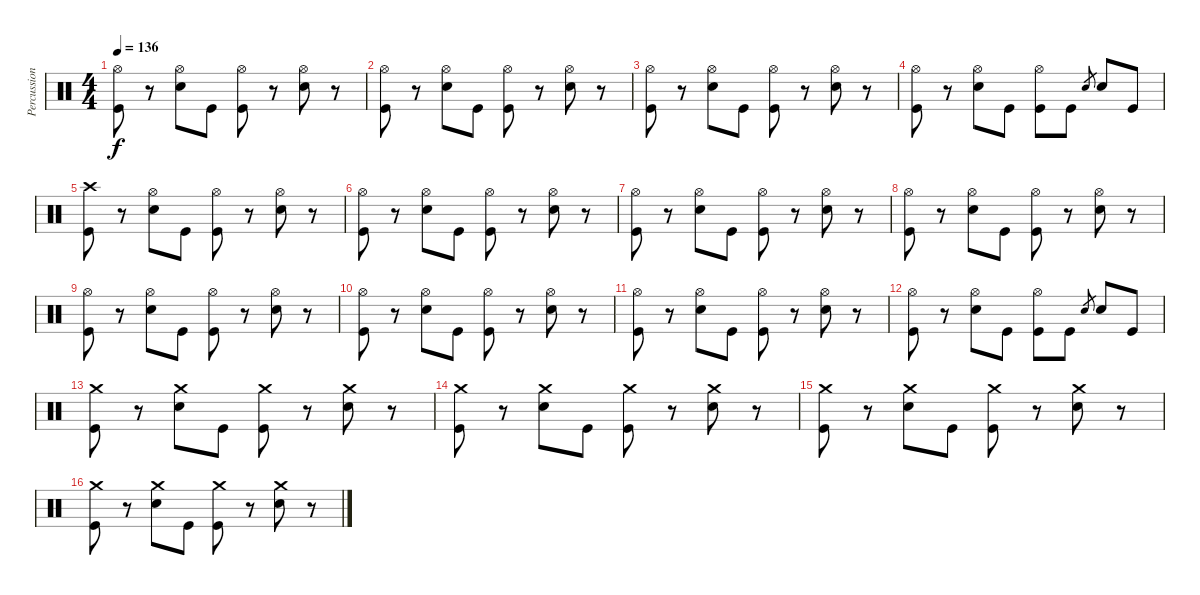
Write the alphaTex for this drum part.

\track ("Percussion" "Percussion") {instrument percussion}
\staff {score}
\articulation defaults
\ts (4 4)
\tempo 136
\clef neutral
\ks c
("Hi-Hat (open)" "Kick (hit)").8{dy f} r.8 ("Hi-Hat (open)" "Electric Snare (hit)").8 "Kick (hit)".8 ("Hi-Hat (open)" "Kick (hit)").8 r.8 ("Hi-Hat (open)" "Electric Snare (hit)").8 r.8 |
("Hi-Hat (open)" "Kick (hit)").8 r.8 ("Hi-Hat (open)" "Electric Snare (hit)").8 "Kick (hit)".8 ("Hi-Hat (open)" "Kick (hit)").8 r.8 ("Hi-Hat (open)" "Electric Snare (hit)").8 r.8 |
("Hi-Hat (open)" "Kick (hit)").8 r.8 ("Hi-Hat (open)" "Electric Snare (hit)").8 "Kick (hit)".8 ("Hi-Hat (open)" "Kick (hit)").8 r.8 ("Hi-Hat (open)" "Electric Snare (hit)").8 r.8 |
("Hi-Hat (open)" "Kick (hit)").8 r.8 ("Hi-Hat (open)" "Electric Snare (hit)").8 "Kick (hit)".8 ("Hi-Hat (open)" "Kick (hit)").8 "Kick (hit)".8 "Electric Snare (hit)".8{gr} "Electric Snare (hit)".8 "Kick (hit)".8 |
("Crash high (hit)" "Kick (hit)").8 r.8 ("Hi-Hat (open)" "Electric Snare (hit)").8 "Kick (hit)".8 ("Hi-Hat (open)" "Kick (hit)").8 r.8 ("Hi-Hat (open)" "Electric Snare (hit)").8 r.8 |
("Hi-Hat (open)" "Kick (hit)").8 r.8 ("Hi-Hat (open)" "Electric Snare (hit)").8 "Kick (hit)".8 ("Hi-Hat (open)" "Kick (hit)").8 r.8 ("Hi-Hat (open)" "Electric Snare (hit)").8 r.8 |
("Hi-Hat (open)" "Kick (hit)").8 r.8 ("Hi-Hat (open)" "Electric Snare (hit)").8 "Kick (hit)".8 ("Hi-Hat (open)" "Kick (hit)").8 r.8 ("Hi-Hat (open)" "Electric Snare (hit)").8 r.8 |
("Hi-Hat (open)" "Kick (hit)").8 r.8 ("Hi-Hat (open)" "Electric Snare (hit)").8 "Kick (hit)".8 ("Hi-Hat (open)" "Kick (hit)").8 r.8 ("Hi-Hat (open)" "Electric Snare (hit)").8 r.8 |
("Hi-Hat (open)" "Kick (hit)").8 r.8 ("Hi-Hat (open)" "Electric Snare (hit)").8 "Kick (hit)".8 ("Hi-Hat (open)" "Kick (hit)").8 r.8 ("Hi-Hat (open)" "Electric Snare (hit)").8 r.8 |
("Hi-Hat (open)" "Kick (hit)").8 r.8 ("Hi-Hat (open)" "Electric Snare (hit)").8 "Kick (hit)".8 ("Hi-Hat (open)" "Kick (hit)").8 r.8 ("Hi-Hat (open)" "Electric Snare (hit)").8 r.8 |
("Hi-Hat (open)" "Kick (hit)").8 r.8 ("Hi-Hat (open)" "Electric Snare (hit)").8 "Kick (hit)".8 ("Hi-Hat (open)" "Kick (hit)").8 r.8 ("Hi-Hat (open)" "Electric Snare (hit)").8 r.8 |
("Hi-Hat (open)" "Kick (hit)").8 r.8 ("Hi-Hat (open)" "Electric Snare (hit)").8 "Kick (hit)".8 ("Hi-Hat (open)" "Kick (hit)").8 "Kick (hit)".8 "Electric Snare (hit)".8{gr} "Electric Snare (hit)".8 "Kick (hit)".8 |
("Crash medium (hit)" "Kick (hit)").8 r.8 ("Crash medium (hit)" "Electric Snare (hit)").8 "Kick (hit)".8 ("Crash medium (hit)" "Kick (hit)").8 r.8 ("Crash medium (hit)" "Electric Snare (hit)").8 r.8 |
("Crash medium (hit)" "Kick (hit)").8 r.8 ("Crash medium (hit)" "Electric Snare (hit)").8 "Kick (hit)".8 ("Crash medium (hit)" "Kick (hit)").8 r.8 ("Crash medium (hit)" "Electric Snare (hit)").8 r.8 |
("Crash medium (hit)" "Kick (hit)").8 r.8 ("Crash medium (hit)" "Electric Snare (hit)").8 "Kick (hit)".8 ("Crash medium (hit)" "Kick (hit)").8 r.8 ("Crash medium (hit)" "Electric Snare (hit)").8 r.8 |
("Crash medium (hit)" "Kick (hit)").8 r.8 ("Crash medium (hit)" "Electric Snare (hit)").8 "Kick (hit)".8 ("Crash medium (hit)" "Kick (hit)").8 r.8 ("Crash medium (hit)" "Electric Snare (hit)").8 r.8
